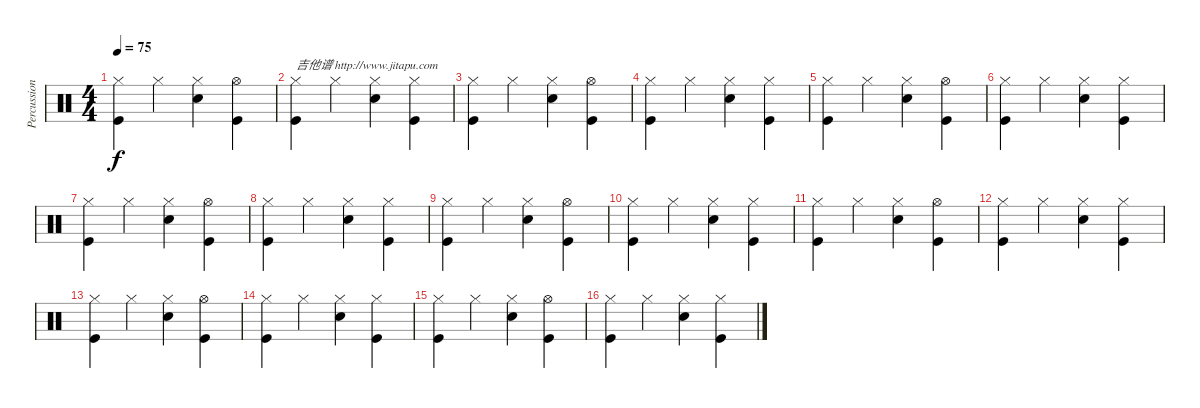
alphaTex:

\track ("Percussion" "Percussion") {instrument percussion}
\staff {score}
\articulation defaults
\ts (4 4)
\tempo 75
\clef neutral
\ks c
("Kick (hit)" "Hi-Hat (closed)").4{dy f} "Hi-Hat (closed)".4 ("Hi-Hat (closed)" "Snare (hit) 2").4 ("Hi-Hat (open)" "Kick (hit)").4 |
("Kick (hit)" "Hi-Hat (closed)").4{txt "吉他谱 http://www.jitapu.com"} "Hi-Hat (closed)".4 ("Hi-Hat (closed)" "Snare (hit) 2").4 ("Hi-Hat (closed)" "Kick (hit)").4 |
("Kick (hit)" "Hi-Hat (closed)").4 "Hi-Hat (closed)".4 ("Hi-Hat (closed)" "Snare (hit) 2").4 ("Hi-Hat (open)" "Kick (hit)").4 |
("Kick (hit)" "Hi-Hat (closed)").4 "Hi-Hat (closed)".4 ("Hi-Hat (closed)" "Snare (hit) 2").4 ("Hi-Hat (closed)" "Kick (hit)").4 |
("Kick (hit)" "Hi-Hat (closed)").4 "Hi-Hat (closed)".4 ("Hi-Hat (closed)" "Snare (hit) 2").4 ("Hi-Hat (open)" "Kick (hit)").4 |
("Kick (hit)" "Hi-Hat (closed)").4 "Hi-Hat (closed)".4 ("Hi-Hat (closed)" "Snare (hit) 2").4 ("Hi-Hat (closed)" "Kick (hit)").4 |
("Kick (hit)" "Hi-Hat (closed)").4 "Hi-Hat (closed)".4 ("Hi-Hat (closed)" "Snare (hit) 2").4 ("Hi-Hat (open)" "Kick (hit)").4 |
("Kick (hit)" "Hi-Hat (closed)").4 "Hi-Hat (closed)".4 ("Hi-Hat (closed)" "Snare (hit) 2").4 ("Hi-Hat (closed)" "Kick (hit)").4 |
("Kick (hit)" "Hi-Hat (closed)").4 "Hi-Hat (closed)".4 ("Hi-Hat (closed)" "Snare (hit) 2").4 ("Hi-Hat (open)" "Kick (hit)").4 |
("Kick (hit)" "Hi-Hat (closed)").4 "Hi-Hat (closed)".4 ("Hi-Hat (closed)" "Snare (hit) 2").4 ("Hi-Hat (closed)" "Kick (hit)").4 |
("Kick (hit)" "Hi-Hat (closed)").4 "Hi-Hat (closed)".4 ("Hi-Hat (closed)" "Snare (hit) 2").4 ("Hi-Hat (open)" "Kick (hit)").4 |
("Kick (hit)" "Hi-Hat (closed)").4 "Hi-Hat (closed)".4 ("Hi-Hat (closed)" "Snare (hit) 2").4 ("Hi-Hat (closed)" "Kick (hit)").4 |
("Kick (hit)" "Hi-Hat (closed)").4 "Hi-Hat (closed)".4 ("Hi-Hat (closed)" "Snare (hit) 2").4 ("Hi-Hat (open)" "Kick (hit)").4 |
("Kick (hit)" "Hi-Hat (closed)").4 "Hi-Hat (closed)".4 ("Hi-Hat (closed)" "Snare (hit) 2").4 ("Hi-Hat (closed)" "Kick (hit)").4 |
("Kick (hit)" "Hi-Hat (closed)").4 "Hi-Hat (closed)".4 ("Hi-Hat (closed)" "Snare (hit) 2").4 ("Hi-Hat (open)" "Kick (hit)").4 |
("Kick (hit)" "Hi-Hat (closed)").4 "Hi-Hat (closed)".4 ("Hi-Hat (closed)" "Snare (hit) 2").4 ("Hi-Hat (closed)" "Kick (hit)").4
